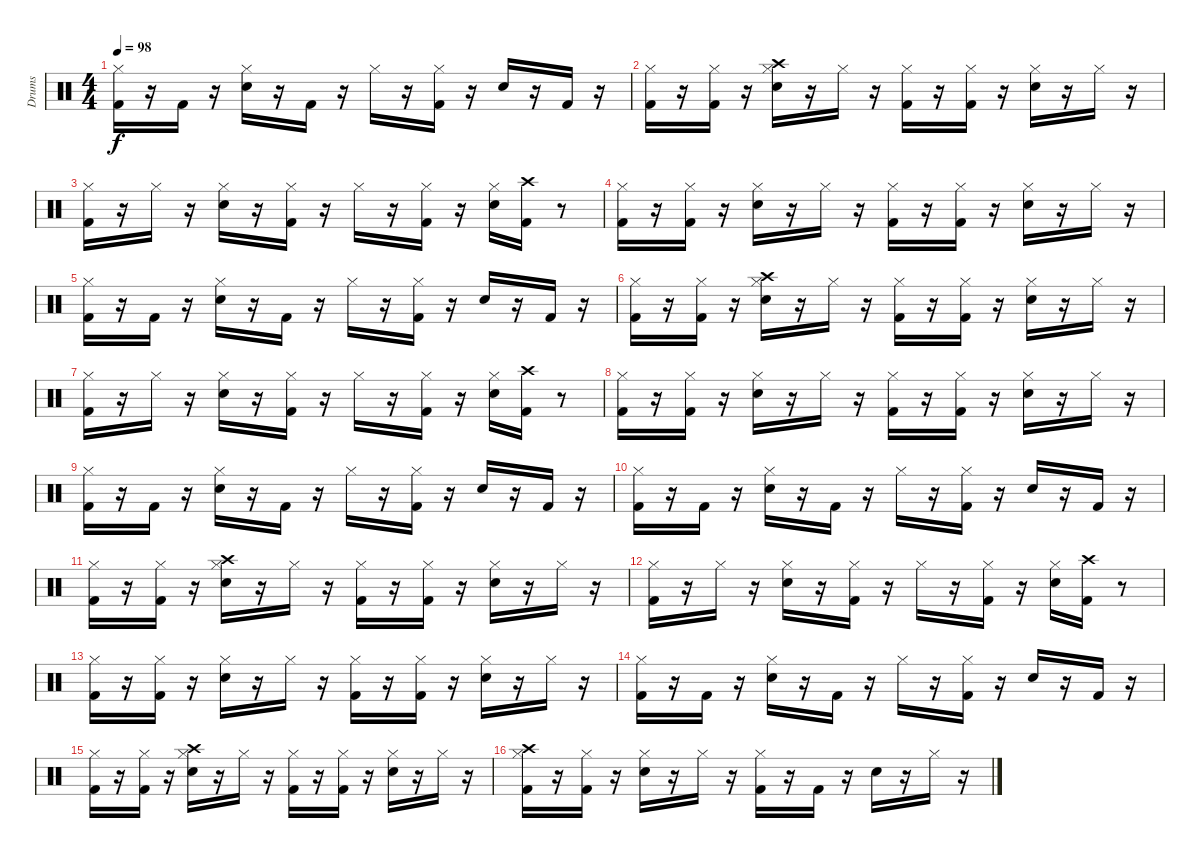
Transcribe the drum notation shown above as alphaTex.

\track ("Drums" "Drums") {instrument percussion}
\staff {score}
\articulation defaults
\ts (4 4)
\tempo 98
\clef neutral
\ks c
("Kick (hit) 2" "Hi-Hat (closed)").16{dy f} r.16 "Kick (hit) 2".16 r.16 ("Snare (hit) 2" "Hi-Hat (closed)").16 r.16 "Kick (hit) 2".16 r.16 "Hi-Hat (closed)".16 r.16 ("Kick (hit) 2" "Hi-Hat (closed)").16 r.16 "Snare (hit) 2".16 r.16 "Kick (hit) 2".16 r.16 |
("Kick (hit) 2" "Hi-Hat (closed)").16 r.16 ("Kick (hit) 2" "Hi-Hat (closed)").16 r.16 ("Snare (hit) 2" "Hi-Hat (closed)" "Crash high (hit)").16 r.16 "Hi-Hat (closed)".16 r.16 ("Kick (hit) 2" "Hi-Hat (closed)").16 r.16 ("Kick (hit) 2" "Hi-Hat (closed)").16 r.16 ("Snare (hit) 2" "Hi-Hat (closed)").16 r.16 "Hi-Hat (closed)".16 r.16 |
("Kick (hit) 2" "Hi-Hat (closed)").16 r.16 "Hi-Hat (closed)".16 r.16 ("Snare (hit) 2" "Hi-Hat (closed)").16 r.16 ("Kick (hit) 2" "Hi-Hat (closed)").16 r.16 "Hi-Hat (closed)".16 r.16 ("Kick (hit) 2" "Hi-Hat (closed)").16 r.16 ("Snare (hit) 2" "Hi-Hat (closed)").16 ("Kick (hit) 2" "Crash high (hit)").16 r.8 |
("Kick (hit) 2" "Hi-Hat (closed)").16 r.16 ("Kick (hit) 2" "Hi-Hat (closed)").16 r.16 ("Snare (hit) 2" "Hi-Hat (closed)").16 r.16 "Hi-Hat (closed)".16 r.16 ("Kick (hit) 2" "Hi-Hat (closed)").16 r.16 ("Kick (hit) 2" "Hi-Hat (closed)").16 r.16 ("Snare (hit) 2" "Hi-Hat (closed)").16 r.16 "Hi-Hat (closed)".16 r.16 |
("Kick (hit) 2" "Hi-Hat (closed)").16 r.16 "Kick (hit) 2".16 r.16 ("Snare (hit) 2" "Hi-Hat (closed)").16 r.16 "Kick (hit) 2".16 r.16 "Hi-Hat (closed)".16 r.16 ("Kick (hit) 2" "Hi-Hat (closed)").16 r.16 "Snare (hit) 2".16 r.16 "Kick (hit) 2".16 r.16 |
("Kick (hit) 2" "Hi-Hat (closed)").16 r.16 ("Kick (hit) 2" "Hi-Hat (closed)").16 r.16 ("Snare (hit) 2" "Hi-Hat (closed)" "Crash high (hit)").16 r.16 "Hi-Hat (closed)".16 r.16 ("Kick (hit) 2" "Hi-Hat (closed)").16 r.16 ("Kick (hit) 2" "Hi-Hat (closed)").16 r.16 ("Snare (hit) 2" "Hi-Hat (closed)").16 r.16 "Hi-Hat (closed)".16 r.16 |
("Kick (hit) 2" "Hi-Hat (closed)").16 r.16 "Hi-Hat (closed)".16 r.16 ("Snare (hit) 2" "Hi-Hat (closed)").16 r.16 ("Kick (hit) 2" "Hi-Hat (closed)").16 r.16 "Hi-Hat (closed)".16 r.16 ("Kick (hit) 2" "Hi-Hat (closed)").16 r.16 ("Snare (hit) 2" "Hi-Hat (closed)").16 ("Kick (hit) 2" "Crash high (hit)").16 r.8 |
("Kick (hit) 2" "Hi-Hat (closed)").16 r.16 ("Kick (hit) 2" "Hi-Hat (closed)").16 r.16 ("Snare (hit) 2" "Hi-Hat (closed)").16 r.16 "Hi-Hat (closed)".16 r.16 ("Kick (hit) 2" "Hi-Hat (closed)").16 r.16 ("Kick (hit) 2" "Hi-Hat (closed)").16 r.16 ("Snare (hit) 2" "Hi-Hat (closed)").16 r.16 "Hi-Hat (closed)".16 r.16 |
("Kick (hit) 2" "Hi-Hat (closed)").16 r.16 "Kick (hit) 2".16 r.16 ("Snare (hit) 2" "Hi-Hat (closed)").16 r.16 "Kick (hit) 2".16 r.16 "Hi-Hat (closed)".16 r.16 ("Kick (hit) 2" "Hi-Hat (closed)").16 r.16 "Snare (hit) 2".16 r.16 "Kick (hit) 2".16 r.16 |
("Kick (hit) 2" "Hi-Hat (closed)").16 r.16 "Kick (hit) 2".16 r.16 ("Snare (hit) 2" "Hi-Hat (closed)").16 r.16 "Kick (hit) 2".16 r.16 "Hi-Hat (closed)".16 r.16 ("Kick (hit) 2" "Hi-Hat (closed)").16 r.16 "Snare (hit) 2".16 r.16 "Kick (hit) 2".16 r.16 |
("Kick (hit) 2" "Hi-Hat (closed)").16 r.16 ("Kick (hit) 2" "Hi-Hat (closed)").16 r.16 ("Snare (hit) 2" "Hi-Hat (closed)" "Crash high (hit)").16 r.16 "Hi-Hat (closed)".16 r.16 ("Kick (hit) 2" "Hi-Hat (closed)").16 r.16 ("Kick (hit) 2" "Hi-Hat (closed)").16 r.16 ("Snare (hit) 2" "Hi-Hat (closed)").16 r.16 "Hi-Hat (closed)".16 r.16 |
("Kick (hit) 2" "Hi-Hat (closed)").16 r.16 "Hi-Hat (closed)".16 r.16 ("Snare (hit) 2" "Hi-Hat (closed)").16 r.16 ("Kick (hit) 2" "Hi-Hat (closed)").16 r.16 "Hi-Hat (closed)".16 r.16 ("Kick (hit) 2" "Hi-Hat (closed)").16 r.16 ("Snare (hit) 2" "Hi-Hat (closed)").16 ("Kick (hit) 2" "Crash high (hit)").16 r.8 |
("Kick (hit) 2" "Hi-Hat (closed)").16 r.16 ("Kick (hit) 2" "Hi-Hat (closed)").16 r.16 ("Snare (hit) 2" "Hi-Hat (closed)").16 r.16 "Hi-Hat (closed)".16 r.16 ("Kick (hit) 2" "Hi-Hat (closed)").16 r.16 ("Kick (hit) 2" "Hi-Hat (closed)").16 r.16 ("Snare (hit) 2" "Hi-Hat (closed)").16 r.16 "Hi-Hat (closed)".16 r.16 |
("Kick (hit) 2" "Hi-Hat (closed)").16 r.16 "Kick (hit) 2".16 r.16 ("Snare (hit) 2" "Hi-Hat (closed)").16 r.16 "Kick (hit) 2".16 r.16 "Hi-Hat (closed)".16 r.16 ("Kick (hit) 2" "Hi-Hat (closed)").16 r.16 "Snare (hit) 2".16 r.16 "Kick (hit) 2".16 r.16 |
("Kick (hit) 2" "Hi-Hat (closed)").16 r.16 ("Kick (hit) 2" "Hi-Hat (closed)").16 r.16 ("Snare (hit) 2" "Hi-Hat (closed)" "Crash high (hit)").16 r.16 "Hi-Hat (closed)".16 r.16 ("Kick (hit) 2" "Hi-Hat (closed)").16 r.16 ("Kick (hit) 2" "Hi-Hat (closed)").16 r.16 ("Snare (hit) 2" "Hi-Hat (closed)").16 r.16 "Hi-Hat (closed)".16 r.16 |
("Kick (hit) 2" "Hi-Hat (closed)" "Crash high (hit)").16 r.16 ("Kick (hit) 2" "Hi-Hat (closed)").16 r.16 ("Snare (hit) 2" "Hi-Hat (closed)").16 r.16 "Hi-Hat (closed)".16 r.16 ("Kick (hit) 2" "Hi-Hat (closed)").16 r.16 "Kick (hit) 2".16 r.16 "Snare (hit) 2".16 r.16 "Hi-Hat (closed)".16 r.16
